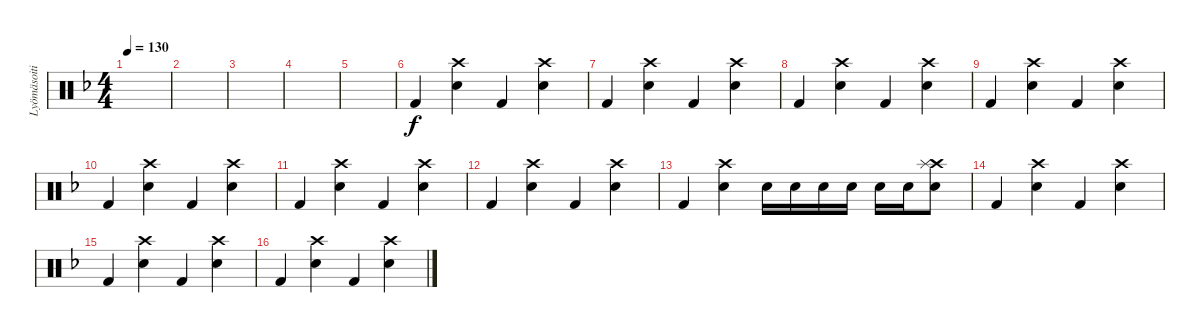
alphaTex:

\track ("Lyömäsoitin" "Lyömäsoiti") {instrument percussion}
\staff {score}
\articulation defaults
\ts (4 4)
\tempo 130
\clef neutral
\ks f
|
|
|
|
|
"Kick (hit) 2".4 ("Electric Snare (hit)" "Crash high (hit)").4 "Kick (hit) 2".4 ("Electric Snare (hit)" "Crash high (hit)").4 |
"Kick (hit) 2".4 ("Electric Snare (hit)" "Crash high (hit)").4 "Kick (hit) 2".4 ("Electric Snare (hit)" "Crash high (hit)").4 |
"Kick (hit) 2".4 ("Electric Snare (hit)" "Crash high (hit)").4 "Kick (hit) 2".4 ("Electric Snare (hit)" "Crash high (hit)").4 |
"Kick (hit) 2".4 ("Electric Snare (hit)" "Crash high (hit)").4 "Kick (hit) 2".4 ("Electric Snare (hit)" "Crash high (hit)").4 |
"Kick (hit) 2".4 ("Electric Snare (hit)" "Crash high (hit)").4 "Kick (hit) 2".4 ("Electric Snare (hit)" "Crash high (hit)").4 |
"Kick (hit) 2".4 ("Electric Snare (hit)" "Crash high (hit)").4 "Kick (hit) 2".4 ("Electric Snare (hit)" "Crash high (hit)").4 |
"Kick (hit) 2".4 ("Electric Snare (hit)" "Crash high (hit)").4 "Kick (hit) 2".4 ("Electric Snare (hit)" "Crash high (hit)").4 |
"Kick (hit) 2".4 ("Electric Snare (hit)" "Crash high (hit)").4 "Electric Snare (hit)".16 "Electric Snare (hit)".16 "Electric Snare (hit)".16 "Electric Snare (hit)".16 "Electric Snare (hit)".16 "Electric Snare (hit)".16 ("Electric Snare (hit)" "Crash high (hit)" "Splash (hit)").8 |
"Kick (hit) 2".4 ("Electric Snare (hit)" "Crash high (hit)").4 "Kick (hit) 2".4 ("Electric Snare (hit)" "Crash high (hit)").4 |
"Kick (hit) 2".4 ("Electric Snare (hit)" "Crash high (hit)").4 "Kick (hit) 2".4 ("Electric Snare (hit)" "Crash high (hit)").4 |
"Kick (hit) 2".4 ("Electric Snare (hit)" "Crash high (hit)").4 "Kick (hit) 2".4 ("Electric Snare (hit)" "Crash high (hit)").4
